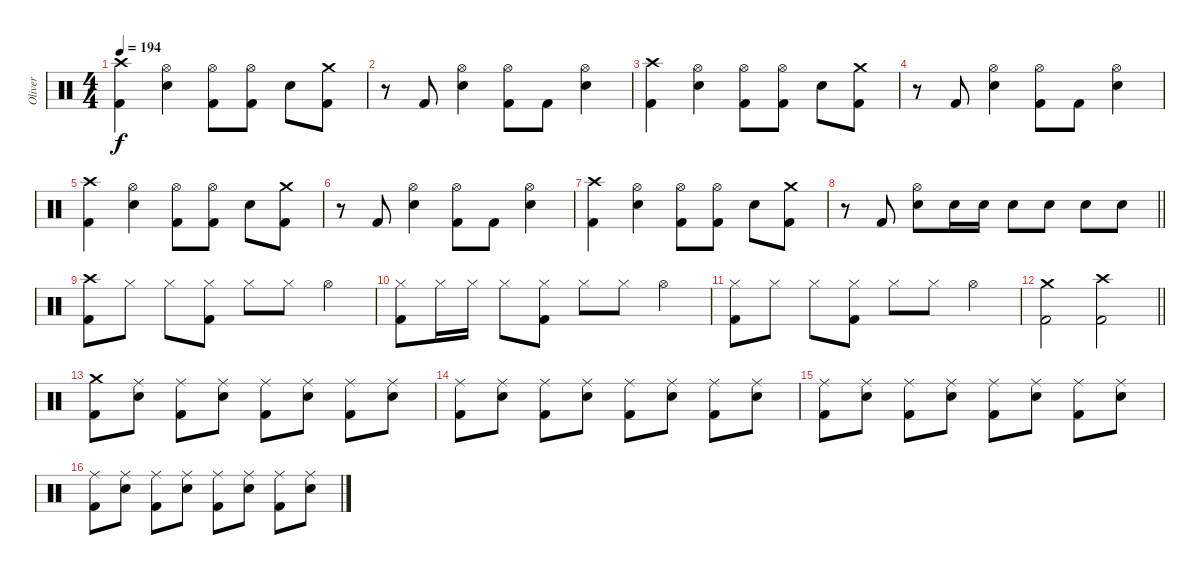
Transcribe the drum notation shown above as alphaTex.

\track ("Oliver" "Oliver") {instrument percussion}
\staff {score}
\articulation defaults
\ts (4 4)
\tempo 194
\clef neutral
\ks c
("Crash high (hit)" "Kick (hit) 2").4{dy f} ("Hi-Hat (open)" "Electric Snare (hit)").4 ("Hi-Hat (open)" "Kick (hit) 2").8 ("Hi-Hat (open)" "Kick (hit) 2").8 "Electric Snare (hit)".8 ("Crash medium (hit)" "Kick (hit) 2").8 |
r.8 "Kick (hit) 2".8 ("Hi-Hat (open)" "Electric Snare (hit)").4 ("Hi-Hat (open)" "Kick (hit) 2").8 "Kick (hit) 2".8 ("Hi-Hat (open)" "Electric Snare (hit)").4 |
("Crash high (hit)" "Kick (hit) 2").4 ("Hi-Hat (open)" "Electric Snare (hit)").4 ("Hi-Hat (open)" "Kick (hit) 2").8 ("Hi-Hat (open)" "Kick (hit) 2").8 "Electric Snare (hit)".8 ("Crash medium (hit)" "Kick (hit) 2").8 |
r.8 "Kick (hit) 2".8 ("Hi-Hat (open)" "Electric Snare (hit)").4 ("Hi-Hat (open)" "Kick (hit) 2").8 "Kick (hit) 2".8 ("Hi-Hat (open)" "Electric Snare (hit)").4 |
("Crash high (hit)" "Kick (hit) 2").4 ("Hi-Hat (open)" "Electric Snare (hit)").4 ("Hi-Hat (open)" "Kick (hit) 2").8 ("Hi-Hat (open)" "Kick (hit) 2").8 "Electric Snare (hit)".8 ("Crash medium (hit)" "Kick (hit) 2").8 |
r.8 "Kick (hit) 2".8 ("Hi-Hat (open)" "Electric Snare (hit)").4 ("Hi-Hat (open)" "Kick (hit) 2").8 "Kick (hit) 2".8 ("Hi-Hat (open)" "Electric Snare (hit)").4 |
("Crash high (hit)" "Kick (hit) 2").4 ("Hi-Hat (open)" "Electric Snare (hit)").4 ("Hi-Hat (open)" "Kick (hit) 2").8 ("Hi-Hat (open)" "Kick (hit) 2").8 "Electric Snare (hit)".8 ("Crash medium (hit)" "Kick (hit) 2").8 |
\barLineRight lightlight
r.8 "Kick (hit) 2".8 ("Hi-Hat (open)" "Electric Snare (hit)").8 "Electric Snare (hit)".16 "Electric Snare (hit)".16 "Electric Snare (hit)".8 "Electric Snare (hit)".8 "Electric Snare (hit)".8 "Electric Snare (hit)".8 |
\section ("" "")
("Crash high (hit)" "Kick (hit) 2").8 "Hi-Hat (closed)".8 "Hi-Hat (closed)".8 ("Hi-Hat (closed)" "Kick (hit) 2").8 "Hi-Hat (closed)".8 "Hi-Hat (closed)".8 "Hi-Hat (open)".4 |
("Hi-Hat (closed)" "Kick (hit) 2").8 "Hi-Hat (closed)".16 "Hi-Hat (closed)".16 "Hi-Hat (closed)".8 ("Hi-Hat (closed)" "Kick (hit) 2").8 "Hi-Hat (closed)".8 "Hi-Hat (closed)".8 "Hi-Hat (open)".4 |
("Hi-Hat (closed)" "Kick (hit) 2").8 "Hi-Hat (closed)".8 "Hi-Hat (closed)".8 ("Hi-Hat (closed)" "Kick (hit) 2").8 "Hi-Hat (closed)".8 "Hi-Hat (closed)".8 "Hi-Hat (open)".4 |
\barLineRight lightlight
("Crash medium (hit)" "Kick (hit) 2").2 ("Crash high (hit)" "Kick (hit) 2").2 |
\section ("" "")
("Crash medium (hit)" "Kick (hit) 2").8 ("Ride (middle)" "Electric Snare (hit)").8 ("Ride (middle)" "Kick (hit) 2").8 ("Ride (middle)" "Electric Snare (hit)").8 ("Ride (middle)" "Kick (hit) 2").8 ("Ride (middle)" "Electric Snare (hit)").8 ("Ride (middle)" "Kick (hit) 2").8 ("Ride (middle)" "Electric Snare (hit)").8 |
("Ride (middle)" "Kick (hit) 2").8 ("Ride (middle)" "Electric Snare (hit)").8 ("Ride (middle)" "Kick (hit) 2").8 ("Ride (middle)" "Electric Snare (hit)").8 ("Ride (middle)" "Kick (hit) 2").8 ("Ride (middle)" "Electric Snare (hit)").8 ("Ride (middle)" "Kick (hit) 2").8 ("Ride (middle)" "Electric Snare (hit)").8 |
("Ride (middle)" "Kick (hit) 2").8 ("Ride (middle)" "Electric Snare (hit)").8 ("Ride (middle)" "Kick (hit) 2").8 ("Ride (middle)" "Electric Snare (hit)").8 ("Ride (middle)" "Kick (hit) 2").8 ("Ride (middle)" "Electric Snare (hit)").8 ("Ride (middle)" "Kick (hit) 2").8 ("Ride (middle)" "Electric Snare (hit)").8 |
("Ride (middle)" "Kick (hit) 2").8 ("Ride (middle)" "Electric Snare (hit)").8 ("Ride (middle)" "Kick (hit) 2").8 ("Ride (middle)" "Electric Snare (hit)").8 ("Ride (middle)" "Kick (hit) 2").8 ("Ride (middle)" "Electric Snare (hit)").8 ("Ride (middle)" "Kick (hit) 2").8 ("Ride (middle)" "Electric Snare (hit)").8
